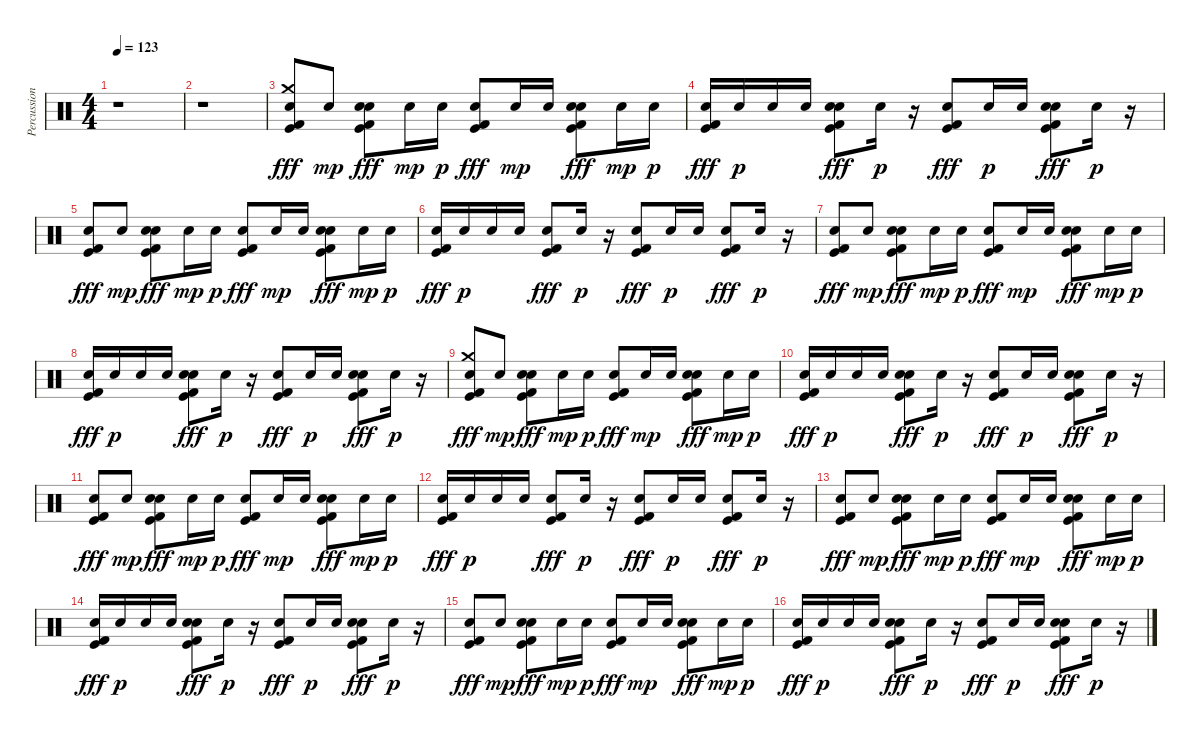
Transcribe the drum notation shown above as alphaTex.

\track ("Percussion" "Percussion") {instrument percussion}
\staff {score}
\articulation defaults
\ts (4 4)
\tempo 123
\clef neutral
\ks c
r.1{dy fff} |
r.1 |
("Hand Clap (hit)" "Crash medium (hit)" "Kick (hit)" "Kick (hit) 2").8 "Hand Clap (hit)".8{dy mp} ("Kick (hit) 2" "Kick (hit)" "Snare (hit) 2" "Hand Clap (hit)").8{dy fff} "Hand Clap (hit)".16{dy mp} "Hand Clap (hit)".16{dy p} ("Kick (hit) 2" "Kick (hit)" "Hand Clap (hit)").8{dy fff} "Hand Clap (hit)".16{dy mp} "Hand Clap (hit)".16 ("Kick (hit) 2" "Kick (hit)" "Snare (hit) 2" "Hand Clap (hit)").8{dy fff} "Hand Clap (hit)".16{dy mp} "Hand Clap (hit)".16{dy p} |
("Kick (hit) 2" "Kick (hit)" "Hand Clap (hit)").16{dy fff} "Hand Clap (hit)".16{dy p} "Hand Clap (hit)".16 "Hand Clap (hit)".16 ("Kick (hit) 2" "Kick (hit)" "Hand Clap (hit)" "Snare (hit) 2").8{dy fff} "Hand Clap (hit)".16{dy p} r.16 ("Kick (hit) 2" "Kick (hit)" "Hand Clap (hit)").8{dy fff} "Hand Clap (hit)".16{dy p} "Hand Clap (hit)".16 ("Kick (hit) 2" "Kick (hit)" "Hand Clap (hit)" "Snare (hit) 2").8{dy fff} "Hand Clap (hit)".16{dy p} r.16 |
("Kick (hit) 2" "Kick (hit)" "Hand Clap (hit)").8{dy fff} "Hand Clap (hit)".8{dy mp} ("Kick (hit) 2" "Kick (hit)" "Snare (hit) 2" "Hand Clap (hit)").8{dy fff} "Hand Clap (hit)".16{dy mp} "Hand Clap (hit)".16{dy p} ("Kick (hit) 2" "Kick (hit)" "Hand Clap (hit)").8{dy fff} "Hand Clap (hit)".16{dy mp} "Hand Clap (hit)".16 ("Kick (hit) 2" "Kick (hit)" "Snare (hit) 2" "Hand Clap (hit)").8{dy fff} "Hand Clap (hit)".16{dy mp} "Hand Clap (hit)".16{dy p} |
("Kick (hit) 2" "Kick (hit)" "Hand Clap (hit)").16{dy fff} "Hand Clap (hit)".16{dy p} "Hand Clap (hit)".16 "Hand Clap (hit)".16 ("Kick (hit) 2" "Kick (hit)" "Hand Clap (hit)").8{dy fff} "Hand Clap (hit)".16{dy p} r.16 ("Kick (hit) 2" "Kick (hit)" "Hand Clap (hit)").8{dy fff} "Hand Clap (hit)".16{dy p} "Hand Clap (hit)".16 ("Kick (hit) 2" "Kick (hit)" "Hand Clap (hit)").8{dy fff} "Hand Clap (hit)".16{dy p} r.16 |
("Kick (hit) 2" "Kick (hit)" "Hand Clap (hit)").8{dy fff} "Hand Clap (hit)".8{dy mp} ("Kick (hit) 2" "Kick (hit)" "Snare (hit) 2" "Hand Clap (hit)").8{dy fff} "Hand Clap (hit)".16{dy mp} "Hand Clap (hit)".16{dy p} ("Kick (hit) 2" "Kick (hit)" "Hand Clap (hit)").8{dy fff} "Hand Clap (hit)".16{dy mp} "Hand Clap (hit)".16 ("Kick (hit) 2" "Kick (hit)" "Snare (hit) 2" "Hand Clap (hit)").8{dy fff} "Hand Clap (hit)".16{dy mp} "Hand Clap (hit)".16{dy p} |
("Kick (hit) 2" "Kick (hit)" "Hand Clap (hit)").16{dy fff} "Hand Clap (hit)".16{dy p} "Hand Clap (hit)".16 "Hand Clap (hit)".16 ("Kick (hit) 2" "Kick (hit)" "Hand Clap (hit)" "Snare (hit) 2").8{dy fff} "Hand Clap (hit)".16{dy p} r.16 ("Kick (hit) 2" "Kick (hit)" "Hand Clap (hit)").8{dy fff} "Hand Clap (hit)".16{dy p} "Hand Clap (hit)".16 ("Kick (hit) 2" "Kick (hit)" "Hand Clap (hit)" "Snare (hit) 2").8{dy fff} "Hand Clap (hit)".16{dy p} r.16 |
("Hand Clap (hit)" "Crash medium (hit)" "Kick (hit)" "Kick (hit) 2").8{dy fff} "Hand Clap (hit)".8{dy mp} ("Kick (hit) 2" "Kick (hit)" "Snare (hit) 2" "Hand Clap (hit)").8{dy fff} "Hand Clap (hit)".16{dy mp} "Hand Clap (hit)".16{dy p} ("Kick (hit) 2" "Kick (hit)" "Hand Clap (hit)").8{dy fff} "Hand Clap (hit)".16{dy mp} "Hand Clap (hit)".16 ("Kick (hit) 2" "Kick (hit)" "Snare (hit) 2" "Hand Clap (hit)").8{dy fff} "Hand Clap (hit)".16{dy mp} "Hand Clap (hit)".16{dy p} |
("Kick (hit) 2" "Kick (hit)" "Hand Clap (hit)").16{dy fff} "Hand Clap (hit)".16{dy p} "Hand Clap (hit)".16 "Hand Clap (hit)".16 ("Kick (hit) 2" "Kick (hit)" "Hand Clap (hit)" "Snare (hit) 2").8{dy fff} "Hand Clap (hit)".16{dy p} r.16 ("Kick (hit) 2" "Kick (hit)" "Hand Clap (hit)").8{dy fff} "Hand Clap (hit)".16{dy p} "Hand Clap (hit)".16 ("Kick (hit) 2" "Kick (hit)" "Hand Clap (hit)" "Snare (hit) 2").8{dy fff} "Hand Clap (hit)".16{dy p} r.16 |
("Kick (hit) 2" "Kick (hit)" "Hand Clap (hit)").8{dy fff} "Hand Clap (hit)".8{dy mp} ("Kick (hit) 2" "Kick (hit)" "Snare (hit) 2" "Hand Clap (hit)").8{dy fff} "Hand Clap (hit)".16{dy mp} "Hand Clap (hit)".16{dy p} ("Kick (hit) 2" "Kick (hit)" "Hand Clap (hit)").8{dy fff} "Hand Clap (hit)".16{dy mp} "Hand Clap (hit)".16 ("Kick (hit) 2" "Kick (hit)" "Snare (hit) 2" "Hand Clap (hit)").8{dy fff} "Hand Clap (hit)".16{dy mp} "Hand Clap (hit)".16{dy p} |
("Kick (hit) 2" "Kick (hit)" "Hand Clap (hit)").16{dy fff} "Hand Clap (hit)".16{dy p} "Hand Clap (hit)".16 "Hand Clap (hit)".16 ("Kick (hit) 2" "Kick (hit)" "Hand Clap (hit)").8{dy fff} "Hand Clap (hit)".16{dy p} r.16 ("Kick (hit) 2" "Kick (hit)" "Hand Clap (hit)").8{dy fff} "Hand Clap (hit)".16{dy p} "Hand Clap (hit)".16 ("Kick (hit) 2" "Kick (hit)" "Hand Clap (hit)").8{dy fff} "Hand Clap (hit)".16{dy p} r.16 |
("Kick (hit) 2" "Kick (hit)" "Hand Clap (hit)").8{dy fff} "Hand Clap (hit)".8{dy mp} ("Kick (hit) 2" "Kick (hit)" "Snare (hit) 2" "Hand Clap (hit)").8{dy fff} "Hand Clap (hit)".16{dy mp} "Hand Clap (hit)".16{dy p} ("Kick (hit) 2" "Kick (hit)" "Hand Clap (hit)").8{dy fff} "Hand Clap (hit)".16{dy mp} "Hand Clap (hit)".16 ("Kick (hit) 2" "Kick (hit)" "Snare (hit) 2" "Hand Clap (hit)").8{dy fff} "Hand Clap (hit)".16{dy mp} "Hand Clap (hit)".16{dy p} |
("Kick (hit) 2" "Kick (hit)" "Hand Clap (hit)").16{dy fff} "Hand Clap (hit)".16{dy p} "Hand Clap (hit)".16 "Hand Clap (hit)".16 ("Kick (hit) 2" "Kick (hit)" "Hand Clap (hit)" "Snare (hit) 2").8{dy fff} "Hand Clap (hit)".16{dy p} r.16 ("Kick (hit) 2" "Kick (hit)" "Hand Clap (hit)").8{dy fff} "Hand Clap (hit)".16{dy p} "Hand Clap (hit)".16 ("Kick (hit) 2" "Kick (hit)" "Hand Clap (hit)" "Snare (hit) 2").8{dy fff} "Hand Clap (hit)".16{dy p} r.16 |
("Kick (hit) 2" "Kick (hit)" "Hand Clap (hit)").8{dy fff} "Hand Clap (hit)".8{dy mp} ("Kick (hit) 2" "Kick (hit)" "Snare (hit) 2" "Hand Clap (hit)").8{dy fff} "Hand Clap (hit)".16{dy mp} "Hand Clap (hit)".16{dy p} ("Kick (hit) 2" "Kick (hit)" "Hand Clap (hit)").8{dy fff} "Hand Clap (hit)".16{dy mp} "Hand Clap (hit)".16 ("Kick (hit) 2" "Kick (hit)" "Snare (hit) 2" "Hand Clap (hit)").8{dy fff} "Hand Clap (hit)".16{dy mp} "Hand Clap (hit)".16{dy p} |
("Kick (hit) 2" "Kick (hit)" "Hand Clap (hit)").16{dy fff} "Hand Clap (hit)".16{dy p} "Hand Clap (hit)".16 "Hand Clap (hit)".16 ("Kick (hit) 2" "Kick (hit)" "Hand Clap (hit)" "Snare (hit) 2").8{dy fff} "Hand Clap (hit)".16{dy p} r.16 ("Kick (hit) 2" "Kick (hit)" "Hand Clap (hit)").8{dy fff} "Hand Clap (hit)".16{dy p} "Hand Clap (hit)".16 ("Kick (hit) 2" "Kick (hit)" "Hand Clap (hit)" "Snare (hit) 2").8{dy fff} "Hand Clap (hit)".16{dy p} r.16
